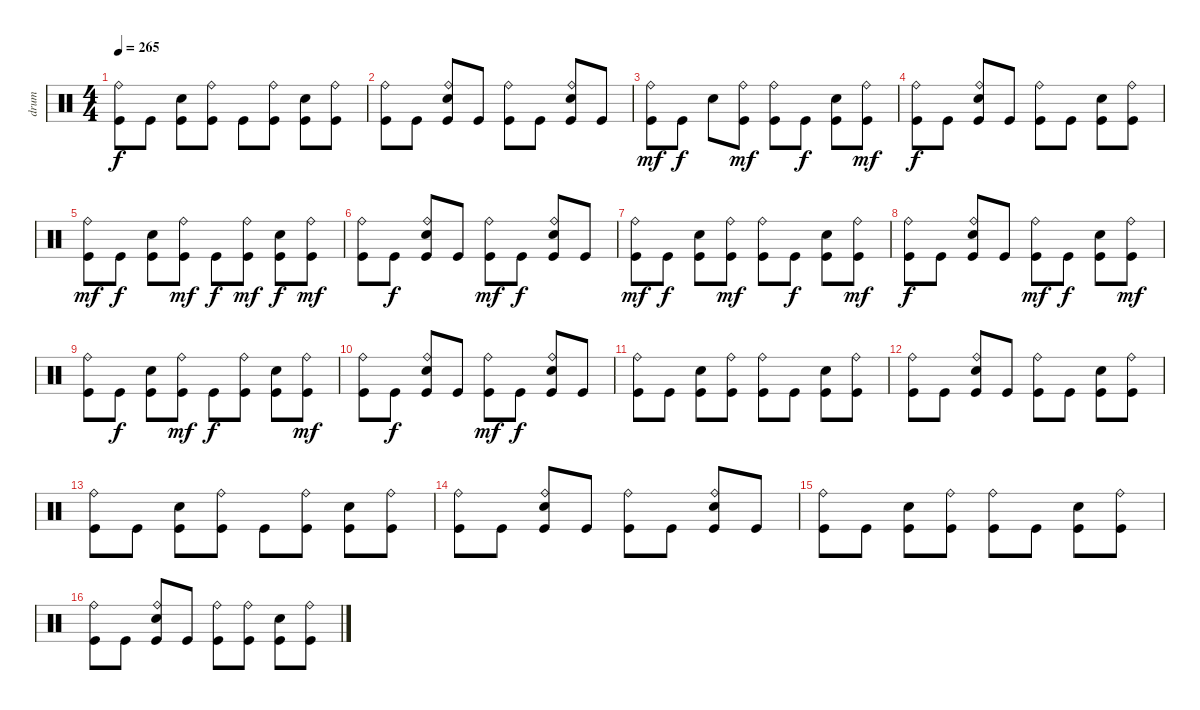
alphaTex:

\track ("drum" "drum") {instrument percussion}
\staff {score}
\articulation defaults
\ts (4 4)
\tempo 265
\clef neutral
\ks c
("Kick (hit)" "Ride (bell)").8{dy f} "Kick (hit)".8 ("Kick (hit)" "Electric Snare (hit)").8 ("Kick (hit)" "Ride (bell)").8 "Kick (hit)".8 ("Kick (hit)" "Ride (bell)").8 ("Kick (hit)" "Electric Snare (hit)").8 ("Kick (hit)" "Ride (bell)").8 |
("Kick (hit)" "Ride (bell)").8 "Kick (hit)".8 ("Kick (hit)" "Electric Snare (hit)" "Ride (bell)").8 "Kick (hit)".8 ("Kick (hit)" "Ride (bell)").8 "Kick (hit)".8 ("Kick (hit)" "Electric Snare (hit)" "Ride (bell)").8 "Kick (hit)".8 |
("Kick (hit)" "Ride (bell)").8{dy mf} "Kick (hit)".8{dy f} "Electric Snare (hit)".8 ("Kick (hit)" "Ride (bell)").8{dy mf} ("Kick (hit)" "Ride (bell)").8 "Kick (hit)".8{dy f} ("Kick (hit)" "Electric Snare (hit)").8 ("Kick (hit)" "Ride (bell)").8{dy mf} |
("Kick (hit)" "Ride (bell)").8{dy f} "Kick (hit)".8 ("Kick (hit)" "Electric Snare (hit)" "Ride (bell)").8 "Kick (hit)".8 ("Kick (hit)" "Ride (bell)").8 "Kick (hit)".8 ("Kick (hit)" "Electric Snare (hit)").8 ("Kick (hit)" "Ride (bell)").8 |
("Kick (hit)" "Ride (bell)").8{dy mf} "Kick (hit)".8{dy f} ("Kick (hit)" "Electric Snare (hit)").8 ("Kick (hit)" "Ride (bell)").8{dy mf} "Kick (hit)".8{dy f} ("Kick (hit)" "Ride (bell)").8{dy mf} ("Kick (hit)" "Electric Snare (hit)").8{dy f} ("Kick (hit)" "Ride (bell)").8{dy mf} |
("Kick (hit)" "Ride (bell)").8 "Kick (hit)".8{dy f} ("Kick (hit)" "Electric Snare (hit)" "Ride (bell)").8 "Kick (hit)".8 ("Kick (hit)" "Ride (bell)").8{dy mf} "Kick (hit)".8{dy f} ("Kick (hit)" "Electric Snare (hit)" "Ride (bell)").8 "Kick (hit)".8 |
("Kick (hit)" "Ride (bell)").8{dy mf} "Kick (hit)".8{dy f} ("Kick (hit)" "Electric Snare (hit)").8 ("Kick (hit)" "Ride (bell)").8{dy mf} ("Kick (hit)" "Ride (bell)").8 "Kick (hit)".8{dy f} ("Kick (hit)" "Electric Snare (hit)").8 ("Kick (hit)" "Ride (bell)").8{dy mf} |
("Kick (hit)" "Ride (bell)").8{dy f} "Kick (hit)".8 ("Kick (hit)" "Electric Snare (hit)" "Ride (bell)").8 "Kick (hit)".8 ("Kick (hit)" "Ride (bell)").8{dy mf} "Kick (hit)".8{dy f} ("Kick (hit)" "Electric Snare (hit)").8 ("Kick (hit)" "Ride (bell)").8{dy mf} |
("Kick (hit)" "Ride (bell)").8 "Kick (hit)".8{dy f} ("Kick (hit)" "Electric Snare (hit)").8 ("Kick (hit)" "Ride (bell)").8{dy mf} "Kick (hit)".8{dy f} ("Kick (hit)" "Ride (bell)").8 ("Kick (hit)" "Electric Snare (hit)").8 ("Kick (hit)" "Ride (bell)").8{dy mf} |
("Kick (hit)" "Ride (bell)").8 "Kick (hit)".8{dy f} ("Kick (hit)" "Electric Snare (hit)" "Ride (bell)").8 "Kick (hit)".8 ("Kick (hit)" "Ride (bell)").8{dy mf} "Kick (hit)".8{dy f} ("Kick (hit)" "Electric Snare (hit)" "Ride (bell)").8 "Kick (hit)".8 |
("Kick (hit)" "Ride (bell)").8 "Kick (hit)".8 ("Kick (hit)" "Electric Snare (hit)").8 ("Kick (hit)" "Ride (bell)").8 ("Kick (hit)" "Ride (bell)").8 "Kick (hit)".8 ("Kick (hit)" "Electric Snare (hit)").8 ("Kick (hit)" "Ride (bell)").8 |
("Kick (hit)" "Ride (bell)").8 "Kick (hit)".8 ("Kick (hit)" "Electric Snare (hit)" "Ride (bell)").8 "Kick (hit)".8 ("Kick (hit)" "Ride (bell)").8 "Kick (hit)".8 ("Kick (hit)" "Electric Snare (hit)").8 ("Kick (hit)" "Ride (bell)").8 |
("Kick (hit)" "Ride (bell)").8 "Kick (hit)".8 ("Kick (hit)" "Electric Snare (hit)").8 ("Kick (hit)" "Ride (bell)").8 "Kick (hit)".8 ("Kick (hit)" "Ride (bell)").8 ("Kick (hit)" "Electric Snare (hit)").8 ("Kick (hit)" "Ride (bell)").8 |
("Kick (hit)" "Ride (bell)").8 "Kick (hit)".8 ("Kick (hit)" "Electric Snare (hit)" "Ride (bell)").8 "Kick (hit)".8 ("Kick (hit)" "Ride (bell)").8 "Kick (hit)".8 ("Kick (hit)" "Electric Snare (hit)" "Ride (bell)").8 "Kick (hit)".8 |
("Kick (hit)" "Ride (bell)").8 "Kick (hit)".8 ("Kick (hit)" "Electric Snare (hit)").8 ("Kick (hit)" "Ride (bell)").8 ("Kick (hit)" "Ride (bell)").8 "Kick (hit)".8 ("Kick (hit)" "Electric Snare (hit)").8 ("Kick (hit)" "Ride (bell)").8 |
("Kick (hit)" "Ride (bell)").8 "Kick (hit)".8 ("Kick (hit)" "Electric Snare (hit)" "Ride (bell)").8 "Kick (hit)".8 ("Kick (hit)" "Ride (bell)").8 ("Kick (hit)" "Ride (bell)").8 ("Kick (hit)" "Electric Snare (hit)").8 ("Kick (hit)" "Ride (bell)").8
